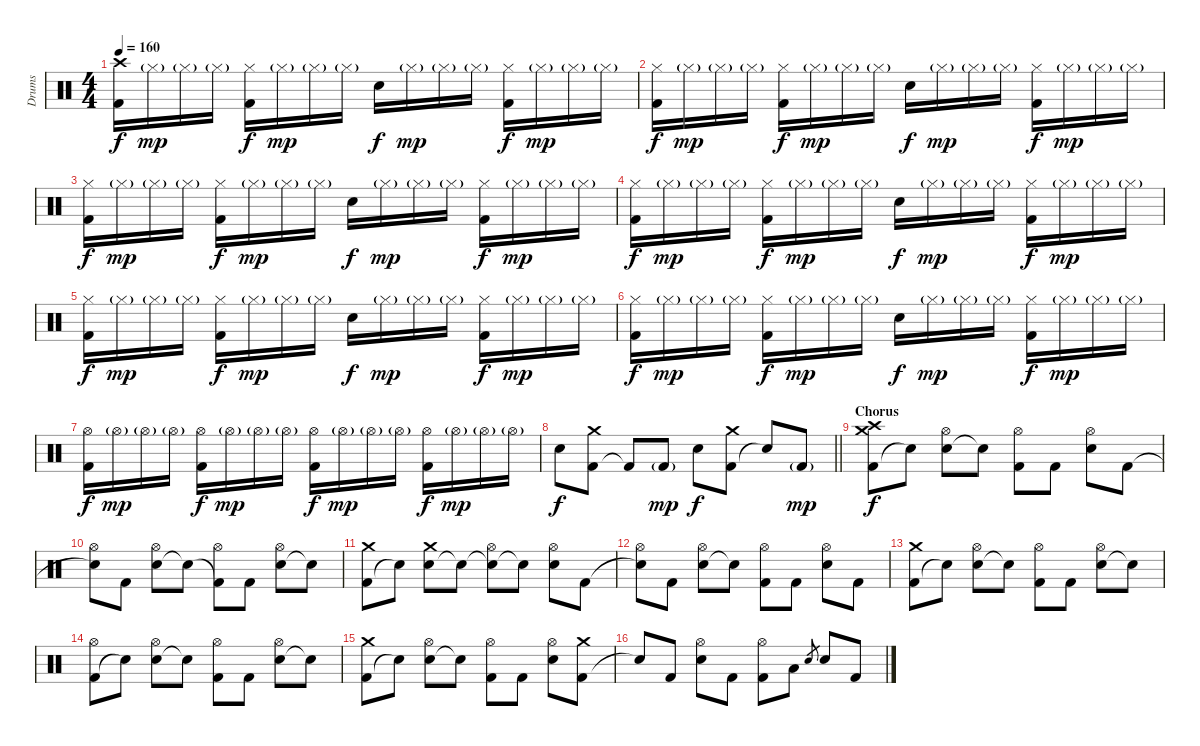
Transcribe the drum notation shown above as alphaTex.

\track ("Drums" "Drums") {instrument percussion}
\staff {score}
\articulation defaults
\ts (4 4)
\tempo 160
\clef neutral
\ks c
("Kick (hit) 2" "Crash high (hit)").16{dy f} "Hi-Hat (closed)"{g}.16{dy mp} "Hi-Hat (closed)"{g}.16 "Hi-Hat (closed)"{g}.16 ("Kick (hit) 2" "Hi-Hat (closed)").16{dy f} "Hi-Hat (closed)"{g}.16{dy mp} "Hi-Hat (closed)"{g}.16 "Hi-Hat (closed)"{g}.16 "Electric Snare (hit)".16{dy f} "Hi-Hat (closed)"{g}.16{dy mp} "Hi-Hat (closed)"{g}.16 "Hi-Hat (closed)"{g}.16 ("Kick (hit) 2" "Hi-Hat (closed)").16{dy f} "Hi-Hat (closed)"{g}.16{dy mp} "Hi-Hat (closed)"{g}.16 "Hi-Hat (closed)"{g}.16 |
("Kick (hit) 2" "Hi-Hat (closed)").16{dy f} "Hi-Hat (closed)"{g}.16{dy mp} "Hi-Hat (closed)"{g}.16 "Hi-Hat (closed)"{g}.16 ("Kick (hit) 2" "Hi-Hat (closed)").16{dy f} "Hi-Hat (closed)"{g}.16{dy mp} "Hi-Hat (closed)"{g}.16 "Hi-Hat (closed)"{g}.16 "Electric Snare (hit)".16{dy f} "Hi-Hat (closed)"{g}.16{dy mp} "Hi-Hat (closed)"{g}.16 "Hi-Hat (closed)"{g}.16 ("Kick (hit) 2" "Hi-Hat (closed)").16{dy f} "Hi-Hat (closed)"{g}.16{dy mp} "Hi-Hat (closed)"{g}.16 "Hi-Hat (closed)"{g}.16 |
("Kick (hit) 2" "Hi-Hat (closed)").16{dy f} "Hi-Hat (closed)"{g}.16{dy mp} "Hi-Hat (closed)"{g}.16 "Hi-Hat (closed)"{g}.16 ("Kick (hit) 2" "Hi-Hat (closed)").16{dy f} "Hi-Hat (closed)"{g}.16{dy mp} "Hi-Hat (closed)"{g}.16 "Hi-Hat (closed)"{g}.16 "Electric Snare (hit)".16{dy f} "Hi-Hat (closed)"{g}.16{dy mp} "Hi-Hat (closed)"{g}.16 "Hi-Hat (closed)"{g}.16 ("Kick (hit) 2" "Hi-Hat (closed)").16{dy f} "Hi-Hat (closed)"{g}.16{dy mp} "Hi-Hat (closed)"{g}.16 "Hi-Hat (closed)"{g}.16 |
("Kick (hit) 2" "Hi-Hat (closed)").16{dy f} "Hi-Hat (closed)"{g}.16{dy mp} "Hi-Hat (closed)"{g}.16 "Hi-Hat (closed)"{g}.16 ("Kick (hit) 2" "Hi-Hat (closed)").16{dy f} "Hi-Hat (closed)"{g}.16{dy mp} "Hi-Hat (closed)"{g}.16 "Hi-Hat (closed)"{g}.16 "Electric Snare (hit)".16{dy f} "Hi-Hat (closed)"{g}.16{dy mp} "Hi-Hat (closed)"{g}.16 "Hi-Hat (closed)"{g}.16 ("Kick (hit) 2" "Hi-Hat (closed)").16{dy f} "Hi-Hat (closed)"{g}.16{dy mp} "Hi-Hat (closed)"{g}.16 "Hi-Hat (closed)"{g}.16 |
("Kick (hit) 2" "Hi-Hat (closed)").16{dy f} "Hi-Hat (closed)"{g}.16{dy mp} "Hi-Hat (closed)"{g}.16 "Hi-Hat (closed)"{g}.16 ("Kick (hit) 2" "Hi-Hat (closed)").16{dy f} "Hi-Hat (closed)"{g}.16{dy mp} "Hi-Hat (closed)"{g}.16 "Hi-Hat (closed)"{g}.16 "Electric Snare (hit)".16{dy f} "Hi-Hat (closed)"{g}.16{dy mp} "Hi-Hat (closed)"{g}.16 "Hi-Hat (closed)"{g}.16 ("Kick (hit) 2" "Hi-Hat (closed)").16{dy f} "Hi-Hat (closed)"{g}.16{dy mp} "Hi-Hat (closed)"{g}.16 "Hi-Hat (closed)"{g}.16 |
("Kick (hit) 2" "Hi-Hat (closed)").16{dy f} "Hi-Hat (closed)"{g}.16{dy mp} "Hi-Hat (closed)"{g}.16 "Hi-Hat (closed)"{g}.16 ("Kick (hit) 2" "Hi-Hat (closed)").16{dy f} "Hi-Hat (closed)"{g}.16{dy mp} "Hi-Hat (closed)"{g}.16 "Hi-Hat (closed)"{g}.16 "Electric Snare (hit)".16{dy f} "Hi-Hat (closed)"{g}.16{dy mp} "Hi-Hat (closed)"{g}.16 "Hi-Hat (closed)"{g}.16 ("Kick (hit) 2" "Hi-Hat (closed)").16{dy f} "Hi-Hat (closed)"{g}.16{dy mp} "Hi-Hat (closed)"{g}.16 "Hi-Hat (closed)"{g}.16 |
("Kick (hit) 2" "Hi-Hat (open)").16{dy f} "Hi-Hat (open)"{g}.16{dy mp} "Hi-Hat (open)"{g}.16 "Hi-Hat (open)"{g}.16 ("Kick (hit) 2" "Hi-Hat (open)").16{dy f} "Hi-Hat (open)"{g}.16{dy mp} "Hi-Hat (open)"{g}.16 "Hi-Hat (open)"{g}.16 ("Kick (hit) 2" "Hi-Hat (open)").16{dy f} "Hi-Hat (open)"{g}.16{dy mp} "Hi-Hat (open)"{g}.16 "Hi-Hat (open)"{g}.16 ("Kick (hit) 2" "Hi-Hat (open)").16{dy f} "Hi-Hat (open)"{g}.16{dy mp} "Hi-Hat (open)"{g}.16 "Hi-Hat (open)"{g}.16 |
\barLineRight lightlight "Electric Snare (hit)".8{dy f}
("Kick (hit) 2" "Crash medium (hit)").8 "Kick (hit) 2"{t}.8 "Kick (hit) 2"{g}.8{dy mp} "Electric Snare (hit)".8{dy f} ("Kick (hit) 2" "Crash medium (hit)").8 "Snare (hit)"{t}.8 "Kick (hit) 2"{g}.8{dy mp} |
\section ("" "Chorus")
("Kick (hit) 2" "Crash medium (hit)" "Crash high (hit)").8{dy f} "Snare (hit)"{t}.8 ("Electric Snare (hit)" "Hi-Hat (open)").8 "Snare (hit)"{t}.8 ("Kick (hit) 2" "Hi-Hat (open)").8 "Kick (hit) 2".8 ("Electric Snare (hit)" "Hi-Hat (open)").8 "Kick (hit) 2".8 |
("Snare (hit)"{t} "Hi-Hat (open)").8 "Kick (hit) 2".8 ("Electric Snare (hit)" "Hi-Hat (open)").8 "Snare (hit)"{t}.8 ("Kick (hit) 2"{t} "Hi-Hat (open)").8 "Kick (hit) 2".8 ("Electric Snare (hit)" "Hi-Hat (open)").8 "Snare (hit)"{t}.8 |
("Kick (hit) 2" "Crash medium (hit)").8 "Snare (hit)"{t}.8 ("Electric Snare (hit)" "Crash medium (hit)").8 "Snare (hit)"{t}.8 ("Snare (hit)"{t} "Hi-Hat (open)").8 "Snare (hit)"{t}.8 ("Electric Snare (hit)" "Hi-Hat (open)").8 "Kick (hit) 2".8 |
("Snare (hit)"{t} "Hi-Hat (open)").8 "Kick (hit) 2".8 ("Electric Snare (hit)" "Hi-Hat (open)").8 "Snare (hit)"{t}.8 ("Kick (hit) 2" "Hi-Hat (open)").8 "Kick (hit) 2".8 ("Electric Snare (hit)" "Hi-Hat (open)").8 "Kick (hit) 2".8 |
("Kick (hit) 2" "Crash medium (hit)").8 "Snare (hit)"{t}.8 ("Electric Snare (hit)" "Hi-Hat (open)").8 "Snare (hit)"{t}.8 ("Kick (hit) 2" "Hi-Hat (open)").8 "Kick (hit) 2".8 ("Electric Snare (hit)" "Hi-Hat (open)").8 "Snare (hit)"{t}.8 |
("Kick (hit) 2" "Hi-Hat (open)").8 "Snare (hit)"{t}.8 ("Electric Snare (hit)" "Hi-Hat (open)").8 "Snare (hit)"{t}.8 ("Kick (hit) 2" "Hi-Hat (open)").8 "Kick (hit) 2".8 ("Electric Snare (hit)" "Hi-Hat (open)").8 "Snare (hit)"{t}.8 |
("Kick (hit) 2" "Crash medium (hit)").8 "Snare (hit)"{t}.8 ("Electric Snare (hit)" "Hi-Hat (open)").8 "Snare (hit)"{t}.8 ("Kick (hit) 2" "Hi-Hat (open)").8 "Kick (hit) 2".8 ("Electric Snare (hit)" "Hi-Hat (open)").8 ("Kick (hit) 2" "Crash medium (hit)").8 |
"Snare (hit)"{t}.8 "Kick (hit) 2".8 ("Electric Snare (hit)" "Hi-Hat (open)").8 "Kick (hit) 2".8 ("Kick (hit) 2" "Hi-Hat (open)").8 "Low Tom (hit)".8 "Electric Snare (hit)".8{gr} "Electric Snare (hit)".8 "Kick (hit) 2".8
